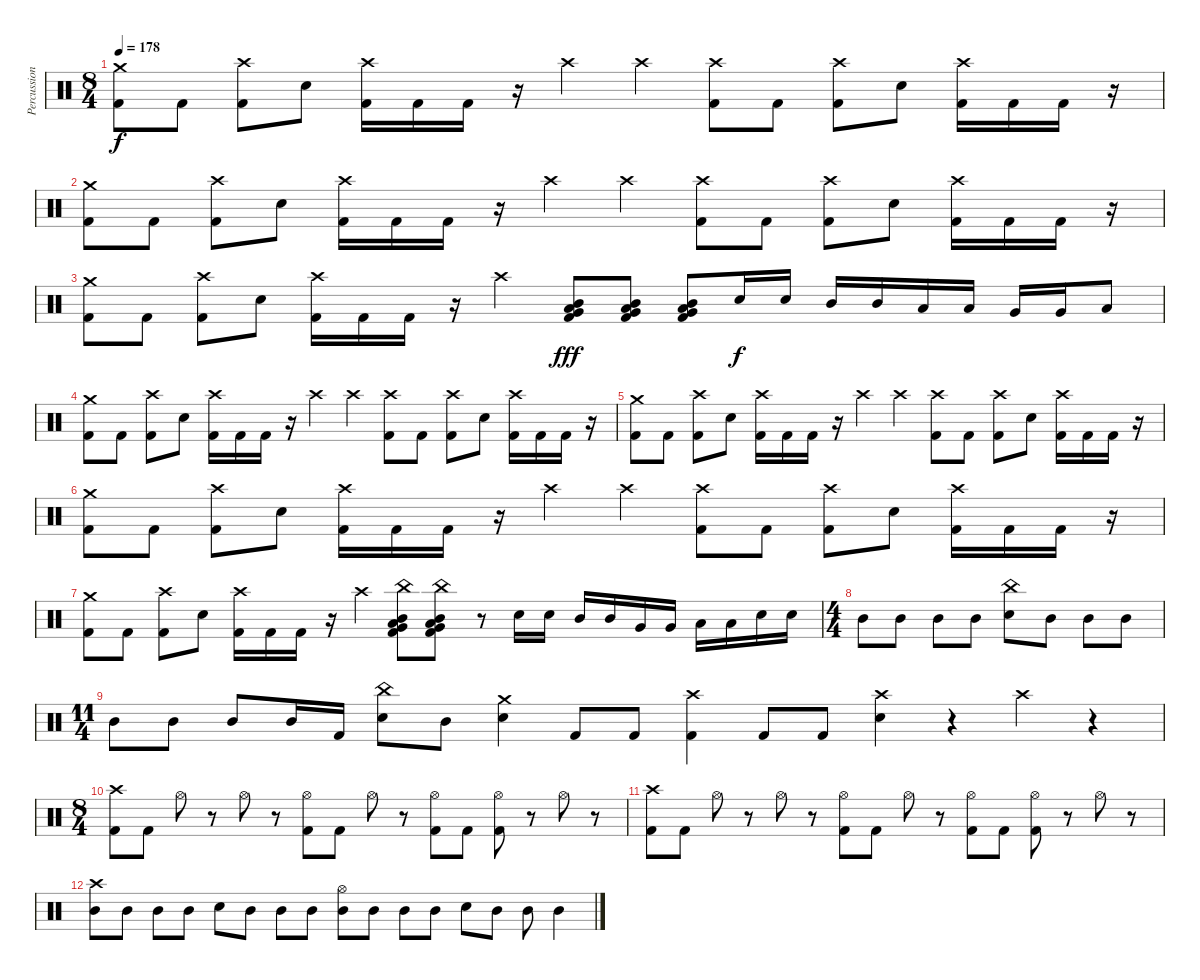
\track ("Percussion" "Percussion") {instrument percussion}
\staff {score}
\articulation defaults
\ts (8 4)
\tempo 178
\clef neutral
\ks c
("Crash medium (hit)" "Kick (hit) 2").8{dy f} "Kick (hit) 2".8 ("Crash high (hit)" "Kick (hit) 2").8 "Electric Snare (hit)".8 ("Crash high (hit)" "Kick (hit) 2").16 "Kick (hit) 2".16 "Kick (hit) 2".16 r.16 "Crash high (hit)".4 "Crash high (hit)".4 ("Crash high (hit)" "Kick (hit) 2").8 "Kick (hit) 2".8 ("Crash high (hit)" "Kick (hit) 2").8 "Electric Snare (hit)".8 ("Crash high (hit)" "Kick (hit) 2").16 "Kick (hit) 2".16 "Kick (hit) 2".16 r.16 |
("Crash medium (hit)" "Kick (hit) 2").8 "Kick (hit) 2".8 ("Crash high (hit)" "Kick (hit) 2").8 "Electric Snare (hit)".8 ("Crash high (hit)" "Kick (hit) 2").16 "Kick (hit) 2".16 "Kick (hit) 2".16 r.16 "Crash high (hit)".4 "Crash high (hit)".4 ("Crash high (hit)" "Kick (hit) 2").8 "Kick (hit) 2".8 ("Crash high (hit)" "Kick (hit) 2").8 "Electric Snare (hit)".8 ("Crash high (hit)" "Kick (hit) 2").16 "Kick (hit) 2".16 "Kick (hit) 2".16 r.16 |
("Crash medium (hit)" "Kick (hit) 2").8 "Kick (hit) 2".8 ("Crash high (hit)" "Kick (hit) 2").8 "Electric Snare (hit)".8 ("Crash high (hit)" "Kick (hit) 2").16 "Kick (hit) 2".16 "Kick (hit) 2".16 r.16 "Crash high (hit)".4 ("Kick (hit) 2" "Very Low Tom (hit)" "Mid Tom (hit)" "Low Floor Tom (hit)").8{dy fff} ("Kick (hit) 2" "Very Low Tom (hit)" "Mid Tom (hit)" "Low Floor Tom (hit)").8 ("Kick (hit) 2" "Very Low Tom (hit)" "Mid Tom (hit)" "Low Floor Tom (hit)").8 "Electric Snare (hit)".16{dy f} "Electric Snare (hit)".16 "Mid Tom (hit)".16 "Mid Tom (hit)".16 "Low Floor Tom (hit)".16 "Low Floor Tom (hit)".16 "Very Low Tom (hit)".16 "Very Low Tom (hit)".16 "Low Floor Tom (hit)".8 |
("Crash medium (hit)" "Kick (hit) 2").8 "Kick (hit) 2".8 ("Crash high (hit)" "Kick (hit) 2").8 "Electric Snare (hit)".8 ("Crash high (hit)" "Kick (hit) 2").16 "Kick (hit) 2".16 "Kick (hit) 2".16 r.16 "Crash high (hit)".4 "Crash high (hit)".4 ("Crash high (hit)" "Kick (hit) 2").8 "Kick (hit) 2".8 ("Crash high (hit)" "Kick (hit) 2").8 "Electric Snare (hit)".8 ("Crash high (hit)" "Kick (hit) 2").16 "Kick (hit) 2".16 "Kick (hit) 2".16 r.16 |
("Crash medium (hit)" "Kick (hit) 2").8 "Kick (hit) 2".8 ("Crash high (hit)" "Kick (hit) 2").8 "Electric Snare (hit)".8 ("Crash high (hit)" "Kick (hit) 2").16 "Kick (hit) 2".16 "Kick (hit) 2".16 r.16 "Crash high (hit)".4 "Crash high (hit)".4 ("Crash high (hit)" "Kick (hit) 2").8 "Kick (hit) 2".8 ("Crash high (hit)" "Kick (hit) 2").8 "Electric Snare (hit)".8 ("Crash high (hit)" "Kick (hit) 2").16 "Kick (hit) 2".16 "Kick (hit) 2".16 r.16 |
("Crash medium (hit)" "Kick (hit) 2").8 "Kick (hit) 2".8 ("Crash high (hit)" "Kick (hit) 2").8 "Electric Snare (hit)".8 ("Crash high (hit)" "Kick (hit) 2").16 "Kick (hit) 2".16 "Kick (hit) 2".16 r.16 "Crash high (hit)".4 "Crash high (hit)".4 ("Crash high (hit)" "Kick (hit) 2").8 "Kick (hit) 2".8 ("Crash high (hit)" "Kick (hit) 2").8 "Electric Snare (hit)".8 ("Crash high (hit)" "Kick (hit) 2").16 "Kick (hit) 2".16 "Kick (hit) 2".16 r.16 |
("Crash medium (hit)" "Kick (hit) 2").8 "Kick (hit) 2".8 ("Crash high (hit)" "Kick (hit) 2").8 "Electric Snare (hit)".8 ("Crash high (hit)" "Kick (hit) 2").16 "Kick (hit) 2".16 "Kick (hit) 2".16 r.16 "Crash high (hit)".4 ("China (hit)" "Kick (hit) 2" "Very Low Tom (hit)" "Low Floor Tom (hit)" "Mid Tom (hit)").8 ("China (hit)" "Kick (hit) 2" "Very Low Tom (hit)" "Low Floor Tom (hit)" "Mid Tom (hit)").8 r.8 "Electric Snare (hit)".16 "Electric Snare (hit)".16 "Mid Tom (hit)".16 "Mid Tom (hit)".16 "Very Low Tom (hit)".16 "Very Low Tom (hit)".16 "Low Floor Tom (hit)".16 "Low Floor Tom (hit)".16 "Electric Snare (hit)".16 "Electric Snare (hit)".16 |
\ts (4 4)
"Mid Tom (hit)".8 "Mid Tom (hit)".8 "Mid Tom (hit)".8 "Mid Tom (hit)".8 ("China (hit)" "Electric Snare (hit)").8 "Mid Tom (hit)".8 "Mid Tom (hit)".8 "Mid Tom (hit)".8 |
\ts (11 4)
"Mid Tom (hit)".8 "Mid Tom (hit)".8 "Mid Tom (hit)".8 "Mid Tom (hit)".16 "Kick (hit) 2".16 ("China (hit)" "Electric Snare (hit)").8 "Mid Tom (hit)".8 ("Crash medium (hit)" "Electric Snare (hit)").4 "Kick (hit) 2".8 "Kick (hit) 2".8 ("Crash high (hit)" "Kick (hit) 2").4 "Kick (hit) 2".8 "Kick (hit) 2".8 ("Crash high (hit)" "Electric Snare (hit)").4 r.4 "Crash high (hit)".4 r.4 |
\ts (8 4)
("Crash high (hit)" "Kick (hit) 2").8 "Kick (hit) 2".8 "Hi-Hat (open)".8 r.8 "Hi-Hat (open)".8 r.8 ("Hi-Hat (open)" "Kick (hit) 2").8 "Kick (hit) 2".8 "Hi-Hat (open)".8 r.8 ("Hi-Hat (open)" "Kick (hit) 2").8 "Kick (hit) 2".8 ("Hi-Hat (open)" "Kick (hit) 2").8 r.8 "Hi-Hat (open)".8 r.8 |
("Crash high (hit)" "Kick (hit) 2").8 "Kick (hit) 2".8 "Hi-Hat (open)".8 r.8 "Hi-Hat (open)".8 r.8 ("Hi-Hat (open)" "Kick (hit) 2").8 "Kick (hit) 2".8 "Hi-Hat (open)".8 r.8 ("Hi-Hat (open)" "Kick (hit) 2").8 "Kick (hit) 2".8 ("Hi-Hat (open)" "Kick (hit) 2").8 r.8 "Hi-Hat (open)".8 r.8 |
("Crash high (hit)" "Mid Tom (hit)").8 "Mid Tom (hit)".8 "Mid Tom (hit)".8 "Mid Tom (hit)".8 "Electric Snare (hit)".8 "Mid Tom (hit)".8 "Mid Tom (hit)".8 "Mid Tom (hit)".8 ("Hi-Hat (open)" "Mid Tom (hit)").8 "Mid Tom (hit)".8 "Mid Tom (hit)".8 "Mid Tom (hit)".8 "Electric Snare (hit)".8 "Mid Tom (hit)".8 "Mid Tom (hit)".8 "Mid Tom (hit)".4
